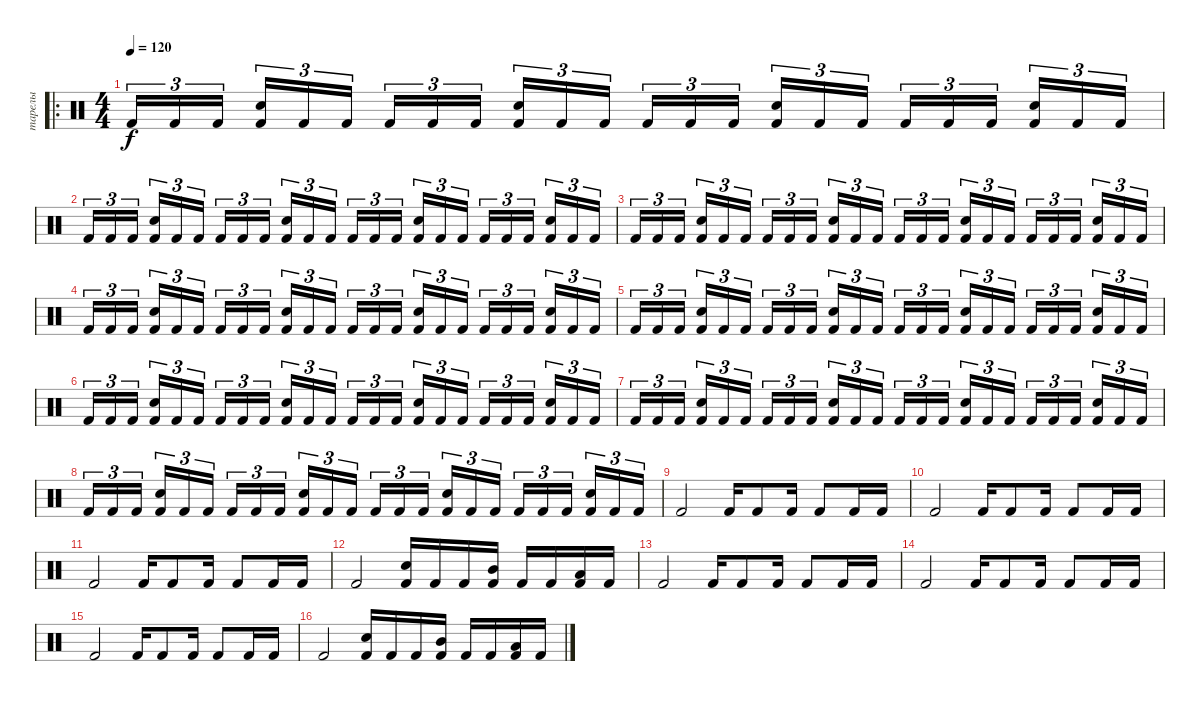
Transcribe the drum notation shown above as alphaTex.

\track ("тарелы" "тарелы") {instrument percussion}
\staff {score}
\articulation defaults
\ro
\ts (4 4)
\tempo 120
\clef neutral
\ks c "Kick (hit) 2".16{tu (3 2) dy f} "Kick (hit) 2".16{tu (3 2)} "Kick (hit) 2".16{tu (3 2) beam splitsecondary}
("Snare (hit) 2" "Kick (hit) 2").16{tu (3 2)} "Kick (hit) 2".16{tu (3 2)} "Kick (hit) 2".16{tu (3 2)} "Kick (hit) 2".16{tu (3 2)} "Kick (hit) 2".16{tu (3 2)} "Kick (hit) 2".16{tu (3 2) beam splitsecondary} ("Snare (hit) 2" "Kick (hit) 2").16{tu (3 2)} "Kick (hit) 2".16{tu (3 2)} "Kick (hit) 2".16{tu (3 2)} "Kick (hit) 2".16{tu (3 2)} "Kick (hit) 2".16{tu (3 2)} "Kick (hit) 2".16{tu (3 2) beam splitsecondary} ("Snare (hit) 2" "Kick (hit) 2").16{tu (3 2)} "Kick (hit) 2".16{tu (3 2)} "Kick (hit) 2".16{tu (3 2)} "Kick (hit) 2".16{tu (3 2)} "Kick (hit) 2".16{tu (3 2)} "Kick (hit) 2".16{tu (3 2) beam splitsecondary} ("Snare (hit) 2" "Kick (hit) 2").16{tu (3 2)} "Kick (hit) 2".16{tu (3 2)} "Kick (hit) 2".16{tu (3 2)} |
"Kick (hit) 2".16{tu (3 2)} "Kick (hit) 2".16{tu (3 2)} "Kick (hit) 2".16{tu (3 2) beam splitsecondary} ("Snare (hit) 2" "Kick (hit) 2").16{tu (3 2)} "Kick (hit) 2".16{tu (3 2)} "Kick (hit) 2".16{tu (3 2)} "Kick (hit) 2".16{tu (3 2)} "Kick (hit) 2".16{tu (3 2)} "Kick (hit) 2".16{tu (3 2) beam splitsecondary} ("Snare (hit) 2" "Kick (hit) 2").16{tu (3 2)} "Kick (hit) 2".16{tu (3 2)} "Kick (hit) 2".16{tu (3 2)} "Kick (hit) 2".16{tu (3 2)} "Kick (hit) 2".16{tu (3 2)} "Kick (hit) 2".16{tu (3 2) beam splitsecondary} ("Snare (hit) 2" "Kick (hit) 2").16{tu (3 2)} "Kick (hit) 2".16{tu (3 2)} "Kick (hit) 2".16{tu (3 2)} "Kick (hit) 2".16{tu (3 2)} "Kick (hit) 2".16{tu (3 2)} "Kick (hit) 2".16{tu (3 2) beam splitsecondary} ("Snare (hit) 2" "Kick (hit) 2").16{tu (3 2)} "Kick (hit) 2".16{tu (3 2)} "Kick (hit) 2".16{tu (3 2)} |
"Kick (hit) 2".16{tu (3 2)} "Kick (hit) 2".16{tu (3 2)} "Kick (hit) 2".16{tu (3 2) beam splitsecondary} ("Snare (hit) 2" "Kick (hit) 2").16{tu (3 2)} "Kick (hit) 2".16{tu (3 2)} "Kick (hit) 2".16{tu (3 2)} "Kick (hit) 2".16{tu (3 2)} "Kick (hit) 2".16{tu (3 2)} "Kick (hit) 2".16{tu (3 2) beam splitsecondary} ("Snare (hit) 2" "Kick (hit) 2").16{tu (3 2)} "Kick (hit) 2".16{tu (3 2)} "Kick (hit) 2".16{tu (3 2)} "Kick (hit) 2".16{tu (3 2)} "Kick (hit) 2".16{tu (3 2)} "Kick (hit) 2".16{tu (3 2) beam splitsecondary} ("Snare (hit) 2" "Kick (hit) 2").16{tu (3 2)} "Kick (hit) 2".16{tu (3 2)} "Kick (hit) 2".16{tu (3 2)} "Kick (hit) 2".16{tu (3 2)} "Kick (hit) 2".16{tu (3 2)} "Kick (hit) 2".16{tu (3 2) beam splitsecondary} ("Snare (hit) 2" "Kick (hit) 2").16{tu (3 2)} "Kick (hit) 2".16{tu (3 2)} "Kick (hit) 2".16{tu (3 2)} |
"Kick (hit) 2".16{tu (3 2)} "Kick (hit) 2".16{tu (3 2)} "Kick (hit) 2".16{tu (3 2) beam splitsecondary} ("Snare (hit) 2" "Kick (hit) 2").16{tu (3 2)} "Kick (hit) 2".16{tu (3 2)} "Kick (hit) 2".16{tu (3 2)} "Kick (hit) 2".16{tu (3 2)} "Kick (hit) 2".16{tu (3 2)} "Kick (hit) 2".16{tu (3 2) beam splitsecondary} ("Snare (hit) 2" "Kick (hit) 2").16{tu (3 2)} "Kick (hit) 2".16{tu (3 2)} "Kick (hit) 2".16{tu (3 2)} "Kick (hit) 2".16{tu (3 2)} "Kick (hit) 2".16{tu (3 2)} "Kick (hit) 2".16{tu (3 2) beam splitsecondary} ("Snare (hit) 2" "Kick (hit) 2").16{tu (3 2)} "Kick (hit) 2".16{tu (3 2)} "Kick (hit) 2".16{tu (3 2)} "Kick (hit) 2".16{tu (3 2)} "Kick (hit) 2".16{tu (3 2)} "Kick (hit) 2".16{tu (3 2) beam splitsecondary} ("Snare (hit) 2" "Kick (hit) 2").16{tu (3 2)} "Kick (hit) 2".16{tu (3 2)} "Kick (hit) 2".16{tu (3 2)} |
"Kick (hit) 2".16{tu (3 2)} "Kick (hit) 2".16{tu (3 2)} "Kick (hit) 2".16{tu (3 2) beam splitsecondary} ("Snare (hit) 2" "Kick (hit) 2").16{tu (3 2)} "Kick (hit) 2".16{tu (3 2)} "Kick (hit) 2".16{tu (3 2)} "Kick (hit) 2".16{tu (3 2)} "Kick (hit) 2".16{tu (3 2)} "Kick (hit) 2".16{tu (3 2) beam splitsecondary} ("Snare (hit) 2" "Kick (hit) 2").16{tu (3 2)} "Kick (hit) 2".16{tu (3 2)} "Kick (hit) 2".16{tu (3 2)} "Kick (hit) 2".16{tu (3 2)} "Kick (hit) 2".16{tu (3 2)} "Kick (hit) 2".16{tu (3 2) beam splitsecondary} ("Snare (hit) 2" "Kick (hit) 2").16{tu (3 2)} "Kick (hit) 2".16{tu (3 2)} "Kick (hit) 2".16{tu (3 2)} "Kick (hit) 2".16{tu (3 2)} "Kick (hit) 2".16{tu (3 2)} "Kick (hit) 2".16{tu (3 2) beam splitsecondary} ("Snare (hit) 2" "Kick (hit) 2").16{tu (3 2)} "Kick (hit) 2".16{tu (3 2)} "Kick (hit) 2".16{tu (3 2)} |
"Kick (hit) 2".16{tu (3 2)} "Kick (hit) 2".16{tu (3 2)} "Kick (hit) 2".16{tu (3 2) beam splitsecondary} ("Snare (hit) 2" "Kick (hit) 2").16{tu (3 2)} "Kick (hit) 2".16{tu (3 2)} "Kick (hit) 2".16{tu (3 2)} "Kick (hit) 2".16{tu (3 2)} "Kick (hit) 2".16{tu (3 2)} "Kick (hit) 2".16{tu (3 2) beam splitsecondary} ("Snare (hit) 2" "Kick (hit) 2").16{tu (3 2)} "Kick (hit) 2".16{tu (3 2)} "Kick (hit) 2".16{tu (3 2)} "Kick (hit) 2".16{tu (3 2)} "Kick (hit) 2".16{tu (3 2)} "Kick (hit) 2".16{tu (3 2) beam splitsecondary} ("Snare (hit) 2" "Kick (hit) 2").16{tu (3 2)} "Kick (hit) 2".16{tu (3 2)} "Kick (hit) 2".16{tu (3 2)} "Kick (hit) 2".16{tu (3 2)} "Kick (hit) 2".16{tu (3 2)} "Kick (hit) 2".16{tu (3 2) beam splitsecondary} ("Snare (hit) 2" "Kick (hit) 2").16{tu (3 2)} "Kick (hit) 2".16{tu (3 2)} "Kick (hit) 2".16{tu (3 2)} |
"Kick (hit) 2".16{tu (3 2)} "Kick (hit) 2".16{tu (3 2)} "Kick (hit) 2".16{tu (3 2) beam splitsecondary} ("Snare (hit) 2" "Kick (hit) 2").16{tu (3 2)} "Kick (hit) 2".16{tu (3 2)} "Kick (hit) 2".16{tu (3 2)} "Kick (hit) 2".16{tu (3 2)} "Kick (hit) 2".16{tu (3 2)} "Kick (hit) 2".16{tu (3 2) beam splitsecondary} ("Snare (hit) 2" "Kick (hit) 2").16{tu (3 2)} "Kick (hit) 2".16{tu (3 2)} "Kick (hit) 2".16{tu (3 2)} "Kick (hit) 2".16{tu (3 2)} "Kick (hit) 2".16{tu (3 2)} "Kick (hit) 2".16{tu (3 2) beam splitsecondary} ("Snare (hit) 2" "Kick (hit) 2").16{tu (3 2)} "Kick (hit) 2".16{tu (3 2)} "Kick (hit) 2".16{tu (3 2)} "Kick (hit) 2".16{tu (3 2)} "Kick (hit) 2".16{tu (3 2)} "Kick (hit) 2".16{tu (3 2) beam splitsecondary} ("Snare (hit) 2" "Kick (hit) 2").16{tu (3 2)} "Kick (hit) 2".16{tu (3 2)} "Kick (hit) 2".16{tu (3 2)} |
"Kick (hit) 2".16{tu (3 2)} "Kick (hit) 2".16{tu (3 2)} "Kick (hit) 2".16{tu (3 2) beam splitsecondary} ("Snare (hit) 2" "Kick (hit) 2").16{tu (3 2)} "Kick (hit) 2".16{tu (3 2)} "Kick (hit) 2".16{tu (3 2)} "Kick (hit) 2".16{tu (3 2)} "Kick (hit) 2".16{tu (3 2)} "Kick (hit) 2".16{tu (3 2) beam splitsecondary} ("Snare (hit) 2" "Kick (hit) 2").16{tu (3 2)} "Kick (hit) 2".16{tu (3 2)} "Kick (hit) 2".16{tu (3 2)} "Kick (hit) 2".16{tu (3 2)} "Kick (hit) 2".16{tu (3 2)} "Kick (hit) 2".16{tu (3 2) beam splitsecondary} ("Snare (hit) 2" "Kick (hit) 2").16{tu (3 2)} "Kick (hit) 2".16{tu (3 2)} "Kick (hit) 2".16{tu (3 2)} "Kick (hit) 2".16{tu (3 2)} "Kick (hit) 2".16{tu (3 2)} "Kick (hit) 2".16{tu (3 2) beam splitsecondary} ("Snare (hit) 2" "Kick (hit) 2").16{tu (3 2)} "Kick (hit) 2".16{tu (3 2)} "Kick (hit) 2".16{tu (3 2)} |
"Kick (hit) 2".2 "Kick (hit) 2".16 "Kick (hit) 2".8 "Kick (hit) 2".16 "Kick (hit) 2".8 "Kick (hit) 2".16 "Kick (hit) 2".16 |
"Kick (hit) 2".2 "Kick (hit) 2".16 "Kick (hit) 2".8 "Kick (hit) 2".16 "Kick (hit) 2".8 "Kick (hit) 2".16 "Kick (hit) 2".16 |
"Kick (hit) 2".2 "Kick (hit) 2".16 "Kick (hit) 2".8 "Kick (hit) 2".16 "Kick (hit) 2".8 "Kick (hit) 2".16 "Kick (hit) 2".16 |
"Kick (hit) 2".2 ("Snare (hit) 2" "Kick (hit) 2").16 "Kick (hit) 2".16 "Kick (hit) 2".16 ("Mid Tom (hit)" "Kick (hit) 2").16 "Kick (hit) 2".16 "Kick (hit) 2".16 ("Low Floor Tom (hit)" "Kick (hit) 2").16 "Kick (hit) 2".16 |
"Kick (hit) 2".2 "Kick (hit) 2".16 "Kick (hit) 2".8 "Kick (hit) 2".16 "Kick (hit) 2".8 "Kick (hit) 2".16 "Kick (hit) 2".16 |
"Kick (hit) 2".2 "Kick (hit) 2".16 "Kick (hit) 2".8 "Kick (hit) 2".16 "Kick (hit) 2".8 "Kick (hit) 2".16 "Kick (hit) 2".16 |
"Kick (hit) 2".2 "Kick (hit) 2".16 "Kick (hit) 2".8 "Kick (hit) 2".16 "Kick (hit) 2".8 "Kick (hit) 2".16 "Kick (hit) 2".16 |
"Kick (hit) 2".2 ("Snare (hit) 2" "Kick (hit) 2").16 "Kick (hit) 2".16 "Kick (hit) 2".16 ("Mid Tom (hit)" "Kick (hit) 2").16 "Kick (hit) 2".16 "Kick (hit) 2".16 ("Low Floor Tom (hit)" "Kick (hit) 2").16 "Kick (hit) 2".16
